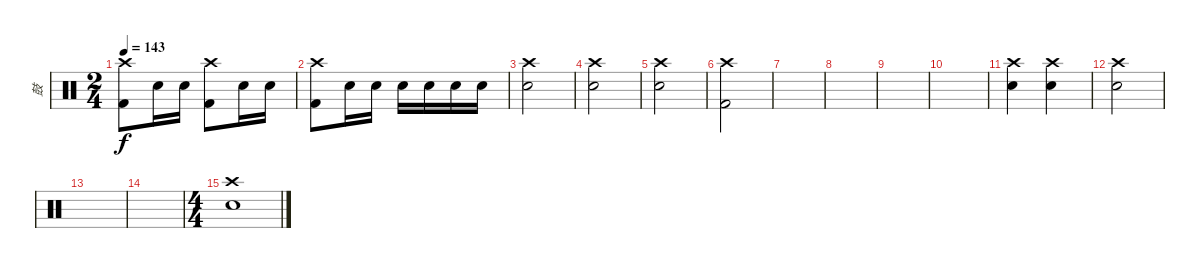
\track ("鼓" "鼓") {instrument percussion}
\staff {score}
\articulation defaults
\ts (2 4)
\tempo 143
\clef neutral
\ks c
("Kick (hit) 2" "Crash high (hit)").8{dy f} "Electric Snare (hit)".16 "Electric Snare (hit)".16 ("Kick (hit) 2" "Crash high (hit)").8 "Electric Snare (hit)".16 "Electric Snare (hit)".16 |
("Kick (hit) 2" "Crash high (hit)").8 "Electric Snare (hit)".16 "Electric Snare (hit)".16 "Electric Snare (hit)".16 "Electric Snare (hit)".16 "Electric Snare (hit)".16 "Electric Snare (hit)".16 |
("Snare (hit) 2" "Crash high (hit)").2 |
("Snare (hit) 2" "Crash high (hit)").2 |
("Snare (hit) 2" "Crash high (hit)").2 |
("Kick (hit) 2" "Crash high (hit)").2 |
|
|
|
|
("Snare (hit) 2" "Crash high (hit)").4 ("Snare (hit) 2" "Crash high (hit)").4 |
("Snare (hit) 2" "Crash high (hit)").2 |
|
|
\ts (4 4)
("Snare (hit) 2" "Crash high (hit)").1
